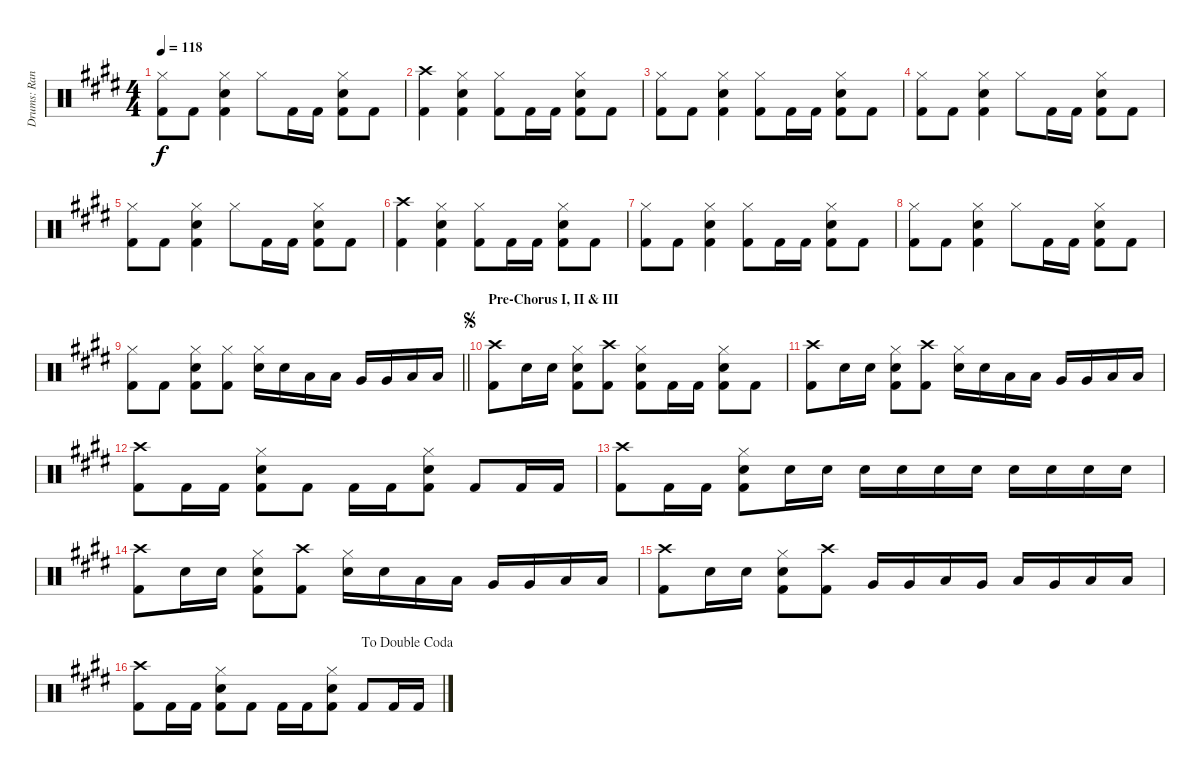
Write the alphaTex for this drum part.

\track ("Drums: Randy" "Drums: Ran") {instrument percussion}
\staff {score}
\articulation defaults
\ts (4 4)
\tempo 118
\clef neutral
\ks e
("Hi-Hat (closed)" "Kick (hit) 2").8{dy f} "Kick (hit) 2".8 ("Hi-Hat (closed)" "Snare (hit) 2" "Kick (hit) 2").4 "Hi-Hat (closed)".8 "Kick (hit) 2".16 "Kick (hit) 2".16 ("Hi-Hat (closed)" "Snare (hit) 2" "Kick (hit) 2").8 "Kick (hit) 2".8 |
("Crash high (hit)" "Kick (hit) 2").4 ("Hi-Hat (closed)" "Snare (hit) 2" "Kick (hit) 2").4 ("Hi-Hat (closed)" "Kick (hit) 2").8 "Kick (hit) 2".16 "Kick (hit) 2".16 ("Hi-Hat (closed)" "Snare (hit) 2" "Kick (hit) 2").8 "Kick (hit) 2".8 |
("Hi-Hat (closed)" "Kick (hit) 2").8 "Kick (hit) 2".8 ("Hi-Hat (closed)" "Snare (hit) 2" "Kick (hit) 2").4 ("Hi-Hat (closed)" "Kick (hit) 2").8 "Kick (hit) 2".16 "Kick (hit) 2".16 ("Hi-Hat (closed)" "Snare (hit) 2" "Kick (hit) 2").8 "Kick (hit) 2".8 |
("Hi-Hat (closed)" "Kick (hit) 2").8 "Kick (hit) 2".8 ("Hi-Hat (closed)" "Snare (hit) 2" "Kick (hit) 2").4 "Hi-Hat (closed)".8 "Kick (hit) 2".16 "Kick (hit) 2".16 ("Hi-Hat (closed)" "Snare (hit) 2" "Kick (hit) 2").8 "Kick (hit) 2".8 |
("Hi-Hat (closed)" "Kick (hit) 2").8 "Kick (hit) 2".8 ("Hi-Hat (closed)" "Snare (hit) 2" "Kick (hit) 2").4 "Hi-Hat (closed)".8 "Kick (hit) 2".16 "Kick (hit) 2".16 ("Hi-Hat (closed)" "Snare (hit) 2" "Kick (hit) 2").8 "Kick (hit) 2".8 |
("Crash high (hit)" "Kick (hit) 2").4 ("Hi-Hat (closed)" "Snare (hit) 2" "Kick (hit) 2").4 ("Hi-Hat (closed)" "Kick (hit) 2").8 "Kick (hit) 2".16 "Kick (hit) 2".16 ("Hi-Hat (closed)" "Snare (hit) 2" "Kick (hit) 2").8 "Kick (hit) 2".8 |
("Hi-Hat (closed)" "Kick (hit) 2").8 "Kick (hit) 2".8 ("Hi-Hat (closed)" "Snare (hit) 2" "Kick (hit) 2").4 ("Hi-Hat (closed)" "Kick (hit) 2").8 "Kick (hit) 2".16 "Kick (hit) 2".16 ("Hi-Hat (closed)" "Snare (hit) 2" "Kick (hit) 2").8 "Kick (hit) 2".8 |
("Hi-Hat (closed)" "Kick (hit) 2").8 "Kick (hit) 2".8 ("Hi-Hat (closed)" "Snare (hit) 2" "Kick (hit) 2").4 "Hi-Hat (closed)".8 "Kick (hit) 2".16 "Kick (hit) 2".16 ("Hi-Hat (closed)" "Snare (hit) 2" "Kick (hit) 2").8 "Kick (hit) 2".8 |
\barLineRight lightlight
("Hi-Hat (closed)" "Kick (hit) 2").8 "Kick (hit) 2".8 ("Hi-Hat (closed)" "Snare (hit) 2" "Kick (hit) 2").8 ("Hi-Hat (closed)" "Kick (hit) 2").8 ("Hi-Hat (closed)" "Snare (hit) 2").16 "Snare (hit) 2".16 "Low Tom (hit)".16 "Low Tom (hit)".16 "Very Low Tom (hit)".16 "Very Low Tom (hit)".16 "Low Tom (hit)".16 "Low Tom (hit)".16 |
\section ("" "Pre-Chorus I, II & III")
\jump segno
("Crash high (hit)" "Kick (hit) 2").8 "Snare (hit) 2".16 "Snare (hit) 2".16 ("Hi-Hat (closed)" "Snare (hit) 2" "Kick (hit) 2").8 ("Crash high (hit)" "Kick (hit) 2").8 ("Hi-Hat (closed)" "Snare (hit) 2" "Kick (hit) 2").8 "Kick (hit) 2".16 "Kick (hit) 2".16 ("Hi-Hat (closed)" "Snare (hit) 2" "Kick (hit) 2").8 "Kick (hit) 2".8 |
("Crash high (hit)" "Kick (hit) 2").8 "Snare (hit) 2".16 "Snare (hit) 2".16 ("Hi-Hat (closed)" "Snare (hit) 2" "Kick (hit) 2").8 ("Crash high (hit)" "Kick (hit) 2").8 ("Hi-Hat (closed)" "Snare (hit) 2").16 "Snare (hit) 2".16 "Low Tom (hit)".16 "Low Tom (hit)".16 "Very Low Tom (hit)".16 "Very Low Tom (hit)".16 "Low Tom (hit)".16 "Low Tom (hit)".16 |
("Crash high (hit)" "Kick (hit) 2").8 "Kick (hit) 2".16 "Kick (hit) 2".16 ("Hi-Hat (closed)" "Snare (hit) 2" "Kick (hit) 2").8 "Kick (hit) 2".8 "Kick (hit) 2".16 "Kick (hit) 2".16 ("Hi-Hat (closed)" "Snare (hit) 2" "Kick (hit) 2").8 "Kick (hit) 2".8 "Kick (hit) 2".16 "Kick (hit) 2".16 |
("Crash high (hit)" "Kick (hit) 2").8 "Kick (hit) 2".16 "Kick (hit) 2".16 ("Hi-Hat (closed)" "Snare (hit) 2" "Kick (hit) 2").8 "Snare (hit) 2".16 "Snare (hit) 2".16 "Snare (hit) 2".16 "Snare (hit) 2".16 "Snare (hit) 2".16 "Snare (hit) 2".16 "Snare (hit) 2".16 "Snare (hit) 2".16 "Snare (hit) 2".16 "Snare (hit) 2".16 |
("Crash high (hit)" "Kick (hit) 2").8 "Snare (hit) 2".16 "Snare (hit) 2".16 ("Hi-Hat (closed)" "Snare (hit) 2" "Kick (hit) 2").8 ("Crash high (hit)" "Kick (hit) 2").8 ("Hi-Hat (closed)" "Snare (hit) 2").16 "Snare (hit) 2".16 "Low Tom (hit)".16 "Low Tom (hit)".16 "Very Low Tom (hit)".16 "Very Low Tom (hit)".16 "Low Tom (hit)".16 "Low Tom (hit)".16 |
("Crash high (hit)" "Kick (hit) 2").8 "Snare (hit) 2".16 "Snare (hit) 2".16 ("Hi-Hat (closed)" "Snare (hit) 2" "Kick (hit) 2").8 ("Crash high (hit)" "Kick (hit) 2").8 "Very Low Tom (hit)".16 "Very Low Tom (hit)".16 "Low Tom (hit)".16 "Very Low Tom (hit)".16 "Low Tom (hit)".16 "Very Low Tom (hit)".16 "Low Floor Tom (hit)".16 "Low Floor Tom (hit)".16 |
\jump dadoublecoda
("Crash high (hit)" "Kick (hit) 2").8 "Kick (hit) 2".16 "Kick (hit) 2".16 ("Hi-Hat (closed)" "Snare (hit) 2" "Kick (hit) 2").8 "Kick (hit) 2".8 "Kick (hit) 2".16 "Kick (hit) 2".16 ("Hi-Hat (closed)" "Snare (hit) 2" "Kick (hit) 2").8 "Kick (hit) 2".8 "Kick (hit) 2".16 "Kick (hit) 2".16
